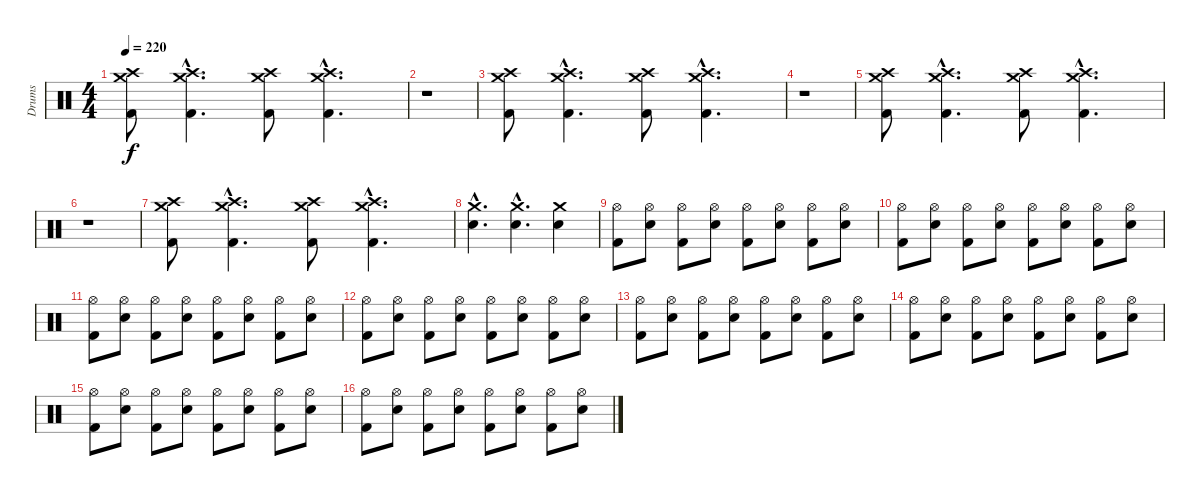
\track ("Drums" "Drums") {instrument percussion}
\staff {score}
\articulation defaults
\ts (4 4)
\tempo 220
\clef neutral
\ks c
("Crash high (hit)" "Crash medium (hit)" "Kick (hit) 2").8{dy f} ("Crash high (hit)"{hac} "Crash medium (hit)"{hac} "Kick (hit) 2"{hac}).4{d} ("Crash high (hit)" "Crash medium (hit)" "Kick (hit) 2").8 ("Crash high (hit)"{hac} "Crash medium (hit)"{hac} "Kick (hit) 2"{hac}).4{d} |
r.1 |
("Crash high (hit)" "Crash medium (hit)" "Kick (hit) 2").8 ("Crash high (hit)"{hac} "Crash medium (hit)"{hac} "Kick (hit) 2"{hac}).4{d} ("Crash high (hit)" "Crash medium (hit)" "Kick (hit) 2").8 ("Crash high (hit)"{hac} "Crash medium (hit)"{hac} "Kick (hit) 2"{hac}).4{d} |
r.1 |
("Crash high (hit)" "Crash medium (hit)" "Kick (hit) 2").8 ("Crash high (hit)"{hac} "Crash medium (hit)"{hac} "Kick (hit) 2"{hac}).4{d} ("Crash high (hit)" "Crash medium (hit)" "Kick (hit) 2").8 ("Crash high (hit)"{hac} "Crash medium (hit)"{hac} "Kick (hit) 2"{hac}).4{d} |
r.1 |
("Crash high (hit)" "Crash medium (hit)" "Kick (hit) 2").8 ("Crash high (hit)"{hac} "Crash medium (hit)"{hac} "Kick (hit) 2"{hac}).4{d} ("Crash high (hit)" "Crash medium (hit)" "Kick (hit) 2").8 ("Crash high (hit)"{hac} "Crash medium (hit)"{hac} "Kick (hit) 2"{hac}).4{d} |
("Crash medium (hit)"{hac} "Snare (hit) 2"{hac}).4{d} ("Crash medium (hit)"{hac} "Snare (hit) 2"{hac}).4{d} ("Crash medium (hit)" "Snare (hit) 2").4 |
("Hi-Hat (open)" "Kick (hit) 2").8 ("Hi-Hat (open)" "Snare (hit) 2").8 ("Hi-Hat (open)" "Kick (hit) 2").8 ("Hi-Hat (open)" "Snare (hit) 2").8 ("Hi-Hat (open)" "Kick (hit) 2").8 ("Hi-Hat (open)" "Snare (hit) 2").8 ("Hi-Hat (open)" "Kick (hit) 2").8 ("Hi-Hat (open)" "Snare (hit) 2").8 |
("Hi-Hat (open)" "Kick (hit) 2").8 ("Hi-Hat (open)" "Snare (hit) 2").8 ("Hi-Hat (open)" "Kick (hit) 2").8 ("Hi-Hat (open)" "Snare (hit) 2").8 ("Hi-Hat (open)" "Kick (hit) 2").8 ("Hi-Hat (open)" "Snare (hit) 2").8 ("Hi-Hat (open)" "Kick (hit) 2").8 ("Hi-Hat (open)" "Snare (hit) 2").8 |
("Hi-Hat (open)" "Kick (hit) 2").8 ("Hi-Hat (open)" "Snare (hit) 2").8 ("Hi-Hat (open)" "Kick (hit) 2").8 ("Hi-Hat (open)" "Snare (hit) 2").8 ("Hi-Hat (open)" "Kick (hit) 2").8 ("Hi-Hat (open)" "Snare (hit) 2").8 ("Hi-Hat (open)" "Kick (hit) 2").8 ("Hi-Hat (open)" "Snare (hit) 2").8 |
("Hi-Hat (open)" "Kick (hit) 2").8 ("Hi-Hat (open)" "Snare (hit) 2").8 ("Hi-Hat (open)" "Kick (hit) 2").8 ("Hi-Hat (open)" "Snare (hit) 2").8 ("Hi-Hat (open)" "Kick (hit) 2").8 ("Hi-Hat (open)" "Snare (hit) 2").8 ("Hi-Hat (open)" "Kick (hit) 2").8 ("Hi-Hat (open)" "Snare (hit) 2").8 |
("Hi-Hat (open)" "Kick (hit) 2").8 ("Hi-Hat (open)" "Snare (hit) 2").8 ("Hi-Hat (open)" "Kick (hit) 2").8 ("Hi-Hat (open)" "Snare (hit) 2").8 ("Hi-Hat (open)" "Kick (hit) 2").8 ("Hi-Hat (open)" "Snare (hit) 2").8 ("Hi-Hat (open)" "Kick (hit) 2").8 ("Hi-Hat (open)" "Snare (hit) 2").8 |
("Hi-Hat (open)" "Kick (hit) 2").8 ("Hi-Hat (open)" "Snare (hit) 2").8 ("Hi-Hat (open)" "Kick (hit) 2").8 ("Hi-Hat (open)" "Snare (hit) 2").8 ("Hi-Hat (open)" "Kick (hit) 2").8 ("Hi-Hat (open)" "Snare (hit) 2").8 ("Hi-Hat (open)" "Kick (hit) 2").8 ("Hi-Hat (open)" "Snare (hit) 2").8 |
("Hi-Hat (open)" "Kick (hit) 2").8 ("Hi-Hat (open)" "Snare (hit) 2").8 ("Hi-Hat (open)" "Kick (hit) 2").8 ("Hi-Hat (open)" "Snare (hit) 2").8 ("Hi-Hat (open)" "Kick (hit) 2").8 ("Hi-Hat (open)" "Snare (hit) 2").8 ("Hi-Hat (open)" "Kick (hit) 2").8 ("Hi-Hat (open)" "Snare (hit) 2").8 |
("Hi-Hat (open)" "Kick (hit) 2").8 ("Hi-Hat (open)" "Snare (hit) 2").8 ("Hi-Hat (open)" "Kick (hit) 2").8 ("Hi-Hat (open)" "Snare (hit) 2").8 ("Hi-Hat (open)" "Kick (hit) 2").8 ("Hi-Hat (open)" "Snare (hit) 2").8 ("Hi-Hat (open)" "Kick (hit) 2").8 ("Hi-Hat (open)" "Snare (hit) 2").8
